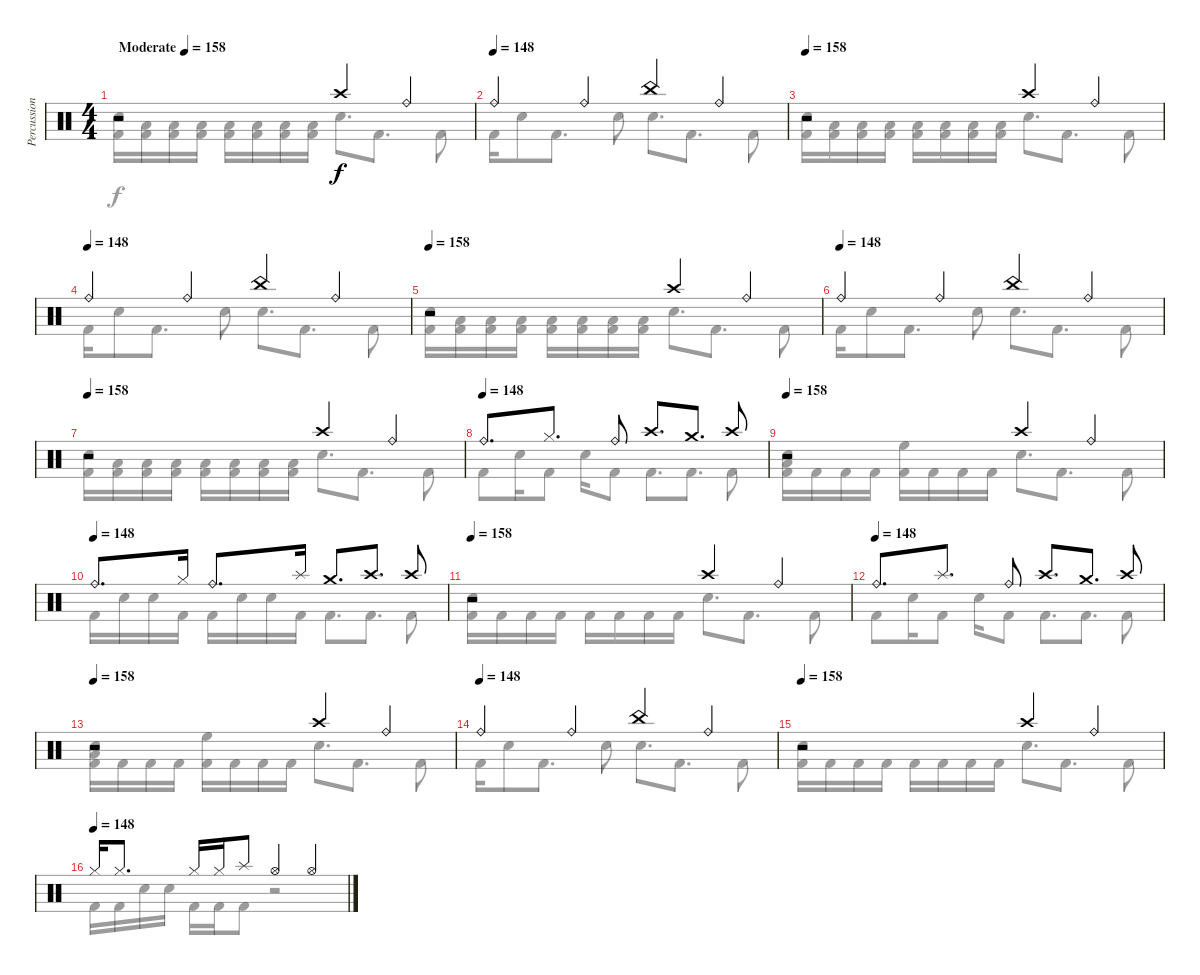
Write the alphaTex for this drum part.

\track ("Percussion" "Percussion") {instrument percussion}
\staff {score}
\articulation defaults
\voice
\ts (4 4)
\tempo (158 "Moderate")
\clef neutral
\ks c
r.2{dy f} "Crash high (hit)".4 "Ride (bell)".4 |
\tempo (148)
"Ride (bell)".4 "Ride (bell)".4 "China (hit)".4 "Ride (bell)".4 |
\tempo 158
r.2 "Crash high (hit)".4 "Ride (bell)".4 |
\tempo (148)
"Ride (bell)".4 "Ride (bell)".4 "China (hit)".4 "Ride (bell)".4 |
\tempo 158
r.2 "Crash high (hit)".4 "Ride (bell)".4 |
\tempo (148)
"Ride (bell)".4 "Ride (bell)".4 "China (hit)".4 "Ride (bell)".4 |
\tempo 158
r.2 "Crash high (hit)".4 "Ride (bell)".4 |
\tempo (148)
"Ride (bell)".8{d} "Hi-Hat (closed)".8{d} "Ride (bell)".8 "Crash high (hit)".8{d} "Crash medium (hit)".8{d} "Crash high (hit)".8 |
\tempo 158
r.2 "Crash high (hit)".4 "Ride (bell)".4 |
\tempo (148)
"Ride (bell)".8{d} "Hi-Hat (closed)".16 "Ride (bell)".8{d} "Splash (hit)".16 "Crash medium (hit)".8{d} "Crash high (hit)".8{d} "Crash high (hit)".8 |
\tempo 158
r.2 "Crash high (hit)".4 "Ride (bell)".4 |
\tempo (148)
"Ride (bell)".8{d} "Splash (hit)".8{d} "Ride (bell)".8 "Crash high (hit)".8{d} "Crash medium (hit)".8{d} "Crash high (hit)".8 |
\tempo 158
r.2 "Crash high (hit)".4 "Ride (bell)".4 |
\tempo (148)
"Ride (bell)".4 "Ride (bell)".4 "China (hit)".4 "Ride (bell)".4 |
\tempo 158
r.2 "Crash high (hit)".4 "Ride (bell)".4 |
\tempo (148)
"Hi-Hat (closed)".16 "Hi-Hat (closed)".8{d} "Hi-Hat (closed)".16 "Hi-Hat (closed)".16 "Splash (hit)".8 "Hi-Hat (open)".4 "Hi-Hat (open)".4
\voice
\clef neutral
\ottava regular
\simile none
\ks c
("Electric Snare (hit)" "Kick (hit) 2").16{dy f} ("Low Floor Tom (hit)" "Kick (hit) 2").16 ("Low Floor Tom (hit)" "Kick (hit) 2").16 ("Low Floor Tom (hit)" "Kick (hit) 2").16 ("Low Floor Tom (hit)" "Kick (hit) 2").16 ("Low Floor Tom (hit)" "Kick (hit) 2").16 ("Low Floor Tom (hit)" "Kick (hit) 2").16 ("Low Floor Tom (hit)" "Kick (hit) 2").16 "Electric Snare (hit)".8{d} "Kick (hit) 2".8{d} "Kick (hit) 2".8 |
"Kick (hit) 2".16 "Electric Snare (hit)".8 "Kick (hit) 2".8{d} "Electric Snare (hit)".8 "Electric Snare (hit)".8{d} "Kick (hit) 2".8{d} "Kick (hit) 2".8 |
("Electric Snare (hit)" "Kick (hit) 2").16 ("Low Floor Tom (hit)" "Kick (hit) 2").16 ("Low Floor Tom (hit)" "Kick (hit) 2").16 ("Low Floor Tom (hit)" "Kick (hit) 2").16 ("Low Floor Tom (hit)" "Kick (hit) 2").16 ("Low Floor Tom (hit)" "Kick (hit) 2").16 ("Low Floor Tom (hit)" "Kick (hit) 2").16 ("Low Floor Tom (hit)" "Kick (hit) 2").16 "Electric Snare (hit)".8{d} "Kick (hit) 2".8{d} "Kick (hit) 2".8 |
"Kick (hit) 2".16 "Electric Snare (hit)".8 "Kick (hit) 2".8{d} "Electric Snare (hit)".8 "Electric Snare (hit)".8{d} "Kick (hit) 2".8{d} "Kick (hit) 2".8 |
("Electric Snare (hit)" "Kick (hit) 2").16 ("Low Floor Tom (hit)" "Kick (hit) 2").16 ("Low Floor Tom (hit)" "Kick (hit) 2").16 ("Low Floor Tom (hit)" "Kick (hit) 2").16 ("Low Floor Tom (hit)" "Kick (hit) 2").16 ("Low Floor Tom (hit)" "Kick (hit) 2").16 ("Low Floor Tom (hit)" "Kick (hit) 2").16 ("Low Floor Tom (hit)" "Kick (hit) 2").16 "Electric Snare (hit)".8{d} "Kick (hit) 2".8{d} "Kick (hit) 2".8 |
"Kick (hit) 2".16 "Electric Snare (hit)".8 "Kick (hit) 2".8{d} "Electric Snare (hit)".8 "Electric Snare (hit)".8{d} "Kick (hit) 2".8{d} "Kick (hit) 2".8 |
("Electric Snare (hit)" "Kick (hit) 2").16 ("Low Floor Tom (hit)" "Kick (hit) 2").16 ("Low Floor Tom (hit)" "Kick (hit) 2").16 ("Low Floor Tom (hit)" "Kick (hit) 2").16 ("Low Floor Tom (hit)" "Kick (hit) 2").16 ("Low Floor Tom (hit)" "Kick (hit) 2").16 ("Low Floor Tom (hit)" "Kick (hit) 2").16 ("Low Floor Tom (hit)" "Kick (hit) 2").16 "Electric Snare (hit)".8{d} "Kick (hit) 2".8{d} "Kick (hit) 2".8 |
"Kick (hit) 2".8 "Electric Snare (hit)".16 "Kick (hit) 2".8 "Electric Snare (hit)".16 "Kick (hit) 2".8 "Kick (hit) 2".8{d} "Kick (hit) 2".8{d} "Kick (hit) 2".8 |
("Low Floor Tom (hit)" "Electric Snare (hit)" "Kick (hit) 2").16 "Kick (hit) 2".16 "Kick (hit) 2".16 "Kick (hit) 2".16 ("High Floor Tom (hit)" "Kick (hit) 2").16 "Kick (hit) 2".16 "Kick (hit) 2".16 "Kick (hit) 2".16 "Electric Snare (hit)".8{d} "Kick (hit) 2".8{d} "Kick (hit) 2".8 |
"Kick (hit) 2".16 "Electric Snare (hit)".16 "Electric Snare (hit)".16 "Kick (hit) 2".16 "Kick (hit) 2".16 "Electric Snare (hit)".16 "Electric Snare (hit)".16 "Kick (hit) 2".16 "Kick (hit) 2".8{d} "Kick (hit) 2".8{d} "Kick (hit) 2".8 |
("Electric Snare (hit)" "Kick (hit) 2").16 "Kick (hit) 2".16 "Kick (hit) 2".16 "Kick (hit) 2".16 "Kick (hit) 2".16 "Kick (hit) 2".16 "Kick (hit) 2".16 "Kick (hit) 2".16 "Electric Snare (hit)".8{d} "Kick (hit) 2".8{d} "Kick (hit) 2".8 |
"Kick (hit) 2".8 "Electric Snare (hit)".16 "Kick (hit) 2".8 "Electric Snare (hit)".16 "Kick (hit) 2".8 "Kick (hit) 2".8{d} "Kick (hit) 2".8{d} "Kick (hit) 2".8 |
("Low Floor Tom (hit)" "Electric Snare (hit)" "Kick (hit) 2").16 "Kick (hit) 2".16 "Kick (hit) 2".16 "Kick (hit) 2".16 ("High Floor Tom (hit)" "Kick (hit) 2").16 "Kick (hit) 2".16 "Kick (hit) 2".16 "Kick (hit) 2".16 "Electric Snare (hit)".8{d} "Kick (hit) 2".8{d} "Kick (hit) 2".8 |
"Kick (hit) 2".16 "Electric Snare (hit)".8 "Kick (hit) 2".8{d} "Electric Snare (hit)".8 "Electric Snare (hit)".8{d} "Kick (hit) 2".8{d} "Kick (hit) 2".8 |
("Electric Snare (hit)" "Kick (hit) 2").16 "Kick (hit) 2".16 "Kick (hit) 2".16 "Kick (hit) 2".16 "Kick (hit) 2".16 "Kick (hit) 2".16 "Kick (hit) 2".16 "Kick (hit) 2".16 "Electric Snare (hit)".8{d} "Kick (hit) 2".8{d} "Kick (hit) 2".8 |
"Kick (hit) 2".16 "Kick (hit) 2".16 "Electric Snare (hit)".16 "Electric Snare (hit)".16 "Kick (hit) 2".16 "Kick (hit) 2".16 "Kick (hit) 2".8 r.2
